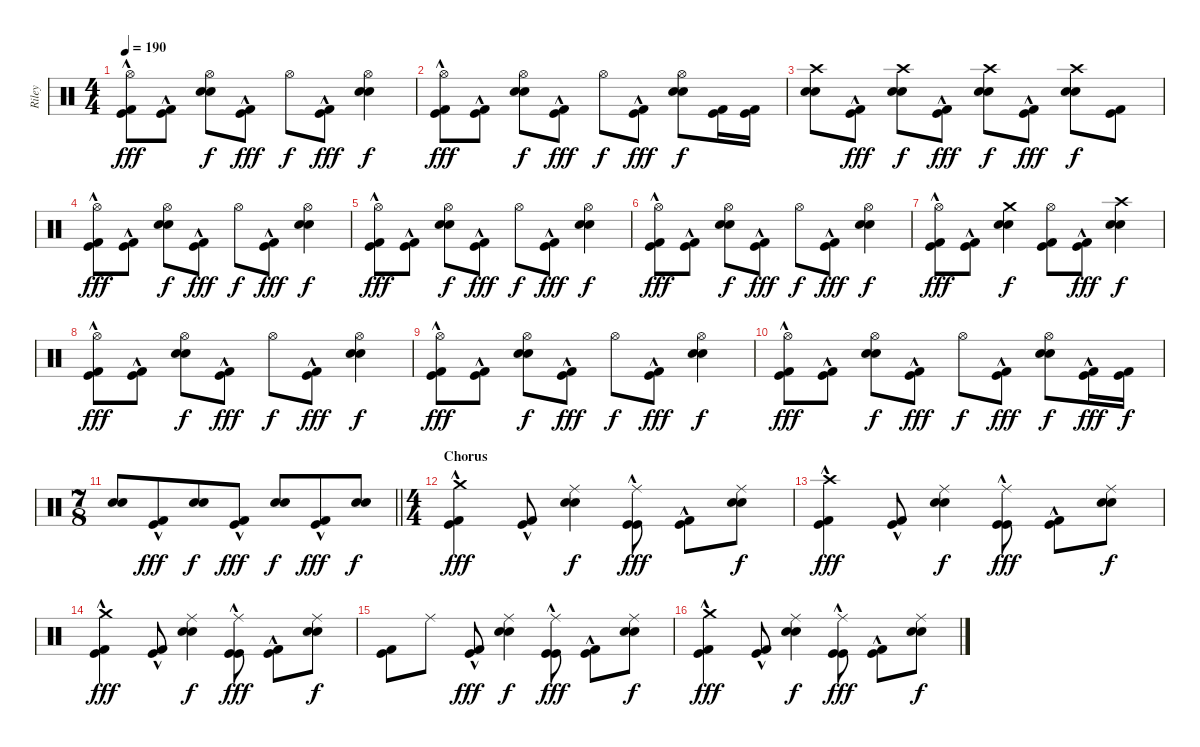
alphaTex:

\track ("Riley" "Riley") {instrument percussion}
\staff {score}
\articulation defaults
\ts (4 4)
\tempo 190
\clef neutral
\ks c
("Hi-Hat (open)" "Kick (hit)"{hac} "Kick (hit) 2"{hac}).8{dy fff} ("Kick (hit)"{hac} "Kick (hit) 2"{hac}).8 ("Hi-Hat (open)" "Electric Snare (hit)" "Snare (hit) 2").8{dy f} ("Kick (hit)"{hac} "Kick (hit) 2"{hac}).8{dy fff} "Hi-Hat (open)".8{dy f} ("Kick (hit)"{hac} "Kick (hit) 2"{hac}).8{dy fff} ("Hi-Hat (open)" "Electric Snare (hit)" "Snare (hit) 2").4{dy f} |
("Hi-Hat (open)" "Kick (hit)"{hac} "Kick (hit) 2"{hac}).8{dy fff} ("Kick (hit)"{hac} "Kick (hit) 2"{hac}).8 ("Hi-Hat (open)" "Electric Snare (hit)" "Snare (hit) 2").8{dy f} ("Kick (hit)"{hac} "Kick (hit) 2"{hac}).8{dy fff} "Hi-Hat (open)".8{dy f} ("Kick (hit)"{hac} "Kick (hit) 2"{hac}).8{dy fff} ("Hi-Hat (open)" "Electric Snare (hit)" "Snare (hit) 2").8{dy f} ("Kick (hit)" "Kick (hit) 2").16 ("Kick (hit)" "Kick (hit) 2").16 |
("Crash high (hit)" "Electric Snare (hit)" "Snare (hit) 2").8 ("Kick (hit)"{hac} "Kick (hit) 2"{hac}).8{dy fff} ("Crash high (hit)" "Electric Snare (hit)" "Snare (hit) 2").8{dy f} ("Kick (hit)"{hac} "Kick (hit) 2"{hac}).8{dy fff} ("Crash high (hit)" "Electric Snare (hit)" "Snare (hit) 2").8{dy f} ("Kick (hit)"{hac} "Kick (hit) 2"{hac}).8{dy fff} ("Crash high (hit)" "Electric Snare (hit)" "Snare (hit) 2").8{dy f} ("Kick (hit)" "Kick (hit) 2").8 |
("Hi-Hat (open)" "Kick (hit)"{hac} "Kick (hit) 2"{hac}).8{dy fff} ("Kick (hit)"{hac} "Kick (hit) 2"{hac}).8 ("Hi-Hat (open)" "Electric Snare (hit)" "Snare (hit) 2").8{dy f} ("Kick (hit)"{hac} "Kick (hit) 2"{hac}).8{dy fff} "Hi-Hat (open)".8{dy f} ("Kick (hit)"{hac} "Kick (hit) 2"{hac}).8{dy fff} ("Hi-Hat (open)" "Electric Snare (hit)" "Snare (hit) 2").4{dy f} |
("Hi-Hat (open)" "Kick (hit)"{hac} "Kick (hit) 2"{hac}).8{dy fff} ("Kick (hit)"{hac} "Kick (hit) 2"{hac}).8 ("Hi-Hat (open)" "Electric Snare (hit)" "Snare (hit) 2").8{dy f} ("Kick (hit)"{hac} "Kick (hit) 2"{hac}).8{dy fff} "Hi-Hat (open)".8{dy f} ("Kick (hit)"{hac} "Kick (hit) 2"{hac}).8{dy fff} ("Hi-Hat (open)" "Electric Snare (hit)" "Snare (hit) 2").4{dy f} |
("Hi-Hat (open)" "Kick (hit)"{hac} "Kick (hit) 2"{hac}).8{dy fff} ("Kick (hit)"{hac} "Kick (hit) 2"{hac}).8 ("Hi-Hat (open)" "Electric Snare (hit)" "Snare (hit) 2").8{dy f} ("Kick (hit)"{hac} "Kick (hit) 2"{hac}).8{dy fff} "Hi-Hat (open)".8{dy f} ("Kick (hit)"{hac} "Kick (hit) 2"{hac}).8{dy fff} ("Hi-Hat (open)" "Electric Snare (hit)" "Snare (hit) 2").4{dy f} |
("Hi-Hat (open)" "Kick (hit)"{hac} "Kick (hit) 2"{hac}).8{dy fff} ("Kick (hit)"{hac} "Kick (hit) 2"{hac}).8 ("Crash medium (hit)" "Electric Snare (hit)" "Snare (hit) 2").4{dy f} ("Hi-Hat (open)" "Kick (hit)" "Kick (hit) 2").8 ("Kick (hit)"{hac} "Kick (hit) 2"{hac}).8{dy fff} ("Crash high (hit)" "Electric Snare (hit)" "Snare (hit) 2").4{dy f} |
("Hi-Hat (open)" "Kick (hit)"{hac} "Kick (hit) 2"{hac}).8{dy fff} ("Kick (hit)"{hac} "Kick (hit) 2"{hac}).8 ("Hi-Hat (open)" "Electric Snare (hit)" "Snare (hit) 2").8{dy f} ("Kick (hit)"{hac} "Kick (hit) 2"{hac}).8{dy fff} "Hi-Hat (open)".8{dy f} ("Kick (hit)"{hac} "Kick (hit) 2"{hac}).8{dy fff} ("Hi-Hat (open)" "Electric Snare (hit)" "Snare (hit) 2").4{dy f} |
("Hi-Hat (open)" "Kick (hit)"{hac} "Kick (hit) 2"{hac}).8{dy fff} ("Kick (hit)"{hac} "Kick (hit) 2"{hac}).8 ("Hi-Hat (open)" "Electric Snare (hit)" "Snare (hit) 2").8{dy f} ("Kick (hit)"{hac} "Kick (hit) 2"{hac}).8{dy fff} "Hi-Hat (open)".8{dy f} ("Kick (hit)"{hac} "Kick (hit) 2"{hac}).8{dy fff} ("Hi-Hat (open)" "Electric Snare (hit)" "Snare (hit) 2").4{dy f} |
("Hi-Hat (open)" "Kick (hit)"{hac} "Kick (hit) 2"{hac}).8{dy fff} ("Kick (hit)"{hac} "Kick (hit) 2"{hac}).8 ("Hi-Hat (open)" "Electric Snare (hit)" "Snare (hit) 2").8{dy f} ("Kick (hit)"{hac} "Kick (hit) 2"{hac}).8{dy fff} "Hi-Hat (open)".8{dy f} ("Kick (hit)"{hac} "Kick (hit) 2"{hac}).8{dy fff} ("Hi-Hat (open)" "Electric Snare (hit)" "Snare (hit) 2").8{dy f} ("Kick (hit)"{hac} "Kick (hit) 2"{hac}).16{dy fff} ("Kick (hit)" "Kick (hit) 2").16{dy f} |
\ts (7 8)
\barLineRight lightlight
("Electric Snare (hit)" "Snare (hit) 2").8 ("Kick (hit)"{hac} "Kick (hit) 2"{hac}).8{dy fff} ("Electric Snare (hit)" "Snare (hit) 2").8{dy f} ("Kick (hit)"{hac} "Kick (hit) 2"{hac}).8{dy fff} ("Electric Snare (hit)" "Snare (hit) 2").8{dy f} ("Kick (hit)"{hac} "Kick (hit) 2"{hac}).8{dy fff} ("Electric Snare (hit)" "Snare (hit) 2").8{dy f} |
\ts (4 4)
\section ("" "Chorus")
("Crash medium (hit)" "Kick (hit)"{hac} "Kick (hit) 2"{hac}).4{dy fff} ("Kick (hit)"{hac} "Kick (hit) 2"{hac}).8 ("Ride (middle)" "Electric Snare (hit)" "Snare (hit) 2").4{dy f} ("Ride (middle)" "Kick (hit)"{hac} "Kick (hit)"{hac}).8{dy fff} ("Kick (hit)"{hac} "Kick (hit) 2"{hac}).8 ("Ride (middle)" "Electric Snare (hit)" "Snare (hit) 2").8{dy f} |
("Crash high (hit)" "Kick (hit)"{hac} "Kick (hit) 2"{hac}).4{dy fff} ("Kick (hit)"{hac} "Kick (hit) 2"{hac}).8 ("Ride (middle)" "Electric Snare (hit)" "Snare (hit) 2").4{dy f} ("Ride (middle)" "Kick (hit)"{hac} "Kick (hit)"{hac}).8{dy fff} ("Kick (hit)"{hac} "Kick (hit) 2"{hac}).8 ("Ride (middle)" "Electric Snare (hit)" "Snare (hit) 2").8{dy f} |
("Crash medium (hit)" "Kick (hit)"{hac} "Kick (hit) 2"{hac}).4{dy fff} ("Kick (hit)"{hac} "Kick (hit) 2"{hac}).8 ("Ride (middle)" "Electric Snare (hit)" "Snare (hit) 2").4{dy f} ("Ride (middle)" "Kick (hit)"{hac} "Kick (hit)"{hac}).8{dy fff} ("Kick (hit)"{hac} "Kick (hit) 2"{hac}).8 ("Ride (middle)" "Electric Snare (hit)" "Snare (hit) 2").8{dy f} |
("Kick (hit)" "Kick (hit) 2").8 "Ride (middle)".8 ("Kick (hit)"{hac} "Kick (hit) 2"{hac}).8{dy fff} ("Ride (middle)" "Electric Snare (hit)" "Snare (hit) 2").4{dy f} ("Ride (middle)" "Kick (hit)"{hac} "Kick (hit)"{hac}).8{dy fff} ("Kick (hit)"{hac} "Kick (hit) 2"{hac}).8 ("Ride (middle)" "Electric Snare (hit)" "Snare (hit) 2").8{dy f} |
("Crash medium (hit)" "Kick (hit)"{hac} "Kick (hit) 2"{hac}).4{dy fff} ("Kick (hit)"{hac} "Kick (hit) 2"{hac}).8 ("Ride (middle)" "Electric Snare (hit)" "Snare (hit) 2").4{dy f} ("Ride (middle)" "Kick (hit)"{hac} "Kick (hit)"{hac}).8{dy fff} ("Kick (hit)"{hac} "Kick (hit) 2"{hac}).8 ("Ride (middle)" "Electric Snare (hit)" "Snare (hit) 2").8{dy f}
